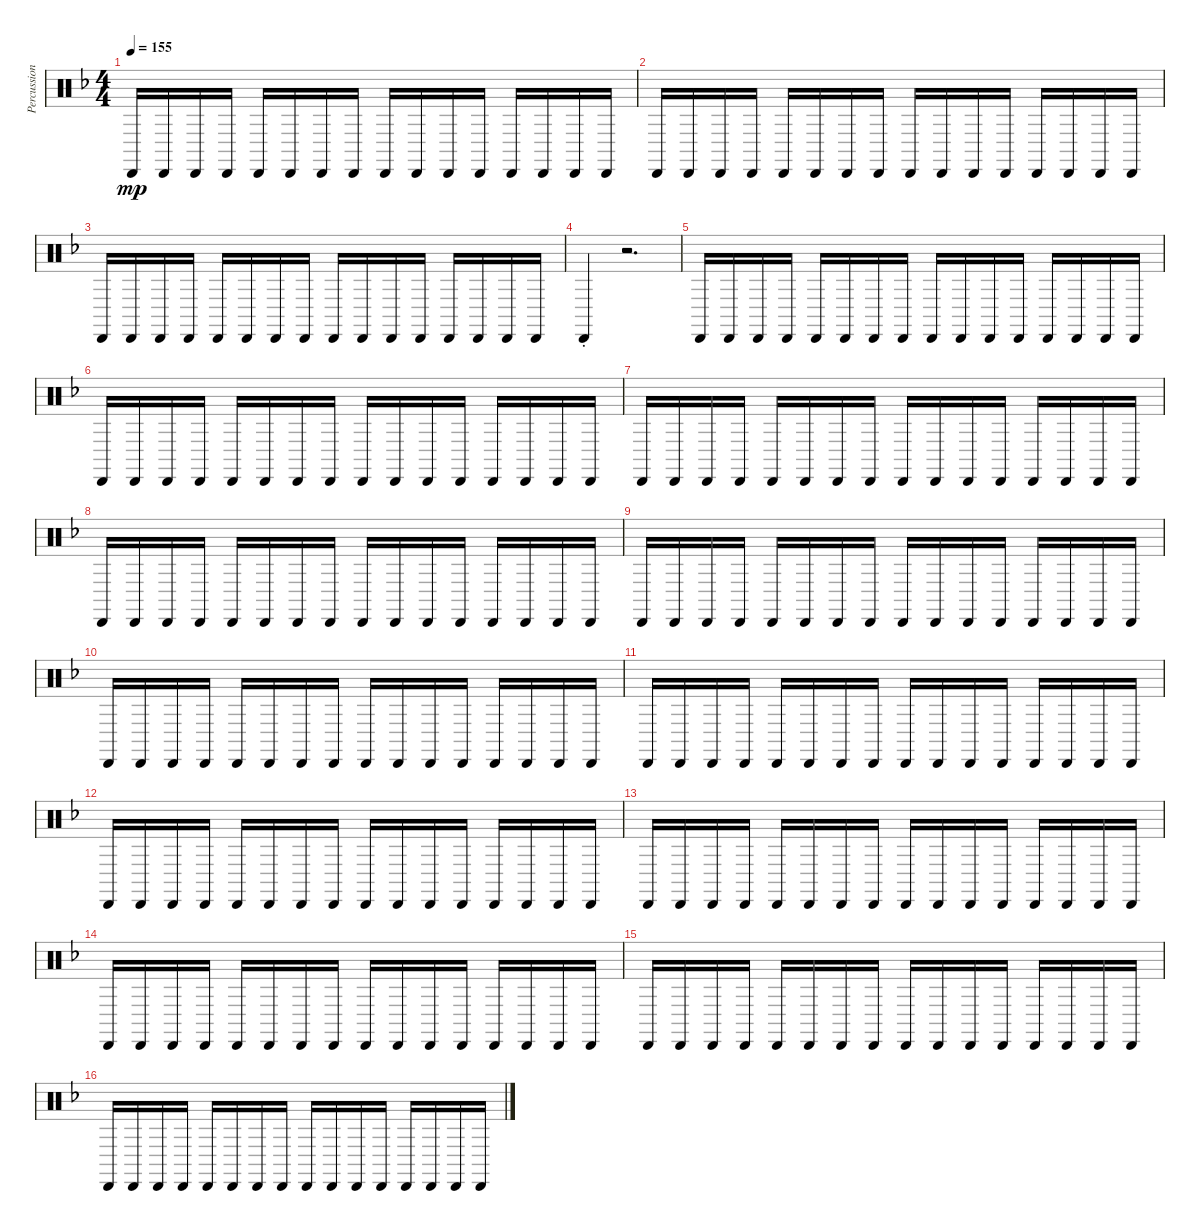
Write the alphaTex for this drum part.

\track ("Percussion" "Percussion") {instrument percussion}
\staff {score}
\articulation defaults
\ts (4 4)
\tempo 155
\clef neutral
\ks dminor "Cabasa (hit)".16{dy mp} "Cabasa (hit)".16 "Cabasa (hit)".16 "Cabasa (hit)".16 "Cabasa (hit)".16 "Cabasa (hit)".16 "Cabasa (hit)".16 "Cabasa (hit)".16 "Cabasa (hit)".16 "Cabasa (hit)".16 "Cabasa (hit)".16 "Cabasa (hit)".16 "Cabasa (hit)".16 "Cabasa (hit)".16 "Cabasa (hit)".16 "Cabasa (hit)".16
|
"Cabasa (hit)".16 "Cabasa (hit)".16 "Cabasa (hit)".16 "Cabasa (hit)".16 "Cabasa (hit)".16 "Cabasa (hit)".16 "Cabasa (hit)".16 "Cabasa (hit)".16 "Cabasa (hit)".16 "Cabasa (hit)".16 "Cabasa (hit)".16 "Cabasa (hit)".16 "Cabasa (hit)".16 "Cabasa (hit)".16 "Cabasa (hit)".16 "Cabasa (hit)".16 |
"Cabasa (hit)".16 "Cabasa (hit)".16 "Cabasa (hit)".16 "Cabasa (hit)".16 "Cabasa (hit)".16 "Cabasa (hit)".16 "Cabasa (hit)".16 "Cabasa (hit)".16 "Cabasa (hit)".16 "Cabasa (hit)".16 "Cabasa (hit)".16 "Cabasa (hit)".16 "Cabasa (hit)".16 "Cabasa (hit)".16 "Cabasa (hit)".16 "Cabasa (hit)".16 |
"Cabasa (hit)"{st}.4 r.2{d} |
"Cabasa (hit)".16 "Cabasa (hit)".16 "Cabasa (hit)".16 "Cabasa (hit)".16 "Cabasa (hit)".16 "Cabasa (hit)".16 "Cabasa (hit)".16 "Cabasa (hit)".16 "Cabasa (hit)".16 "Cabasa (hit)".16 "Cabasa (hit)".16 "Cabasa (hit)".16 "Cabasa (hit)".16 "Cabasa (hit)".16 "Cabasa (hit)".16 "Cabasa (hit)".16 |
"Cabasa (hit)".16 "Cabasa (hit)".16 "Cabasa (hit)".16 "Cabasa (hit)".16 "Cabasa (hit)".16 "Cabasa (hit)".16 "Cabasa (hit)".16 "Cabasa (hit)".16 "Cabasa (hit)".16 "Cabasa (hit)".16 "Cabasa (hit)".16 "Cabasa (hit)".16 "Cabasa (hit)".16 "Cabasa (hit)".16 "Cabasa (hit)".16 "Cabasa (hit)".16 |
"Cabasa (hit)".16 "Cabasa (hit)".16 "Cabasa (hit)".16 "Cabasa (hit)".16 "Cabasa (hit)".16 "Cabasa (hit)".16 "Cabasa (hit)".16 "Cabasa (hit)".16 "Cabasa (hit)".16 "Cabasa (hit)".16 "Cabasa (hit)".16 "Cabasa (hit)".16 "Cabasa (hit)".16 "Cabasa (hit)".16 "Cabasa (hit)".16 "Cabasa (hit)".16 |
"Cabasa (hit)".16 "Cabasa (hit)".16 "Cabasa (hit)".16 "Cabasa (hit)".16 "Cabasa (hit)".16 "Cabasa (hit)".16 "Cabasa (hit)".16 "Cabasa (hit)".16 "Cabasa (hit)".16 "Cabasa (hit)".16 "Cabasa (hit)".16 "Cabasa (hit)".16 "Cabasa (hit)".16 "Cabasa (hit)".16 "Cabasa (hit)".16 "Cabasa (hit)".16 |
"Cabasa (hit)".16 "Cabasa (hit)".16 "Cabasa (hit)".16 "Cabasa (hit)".16 "Cabasa (hit)".16 "Cabasa (hit)".16 "Cabasa (hit)".16 "Cabasa (hit)".16 "Cabasa (hit)".16 "Cabasa (hit)".16 "Cabasa (hit)".16 "Cabasa (hit)".16 "Cabasa (hit)".16 "Cabasa (hit)".16 "Cabasa (hit)".16 "Cabasa (hit)".16 |
"Cabasa (hit)".16 "Cabasa (hit)".16 "Cabasa (hit)".16 "Cabasa (hit)".16 "Cabasa (hit)".16 "Cabasa (hit)".16 "Cabasa (hit)".16 "Cabasa (hit)".16 "Cabasa (hit)".16 "Cabasa (hit)".16 "Cabasa (hit)".16 "Cabasa (hit)".16 "Cabasa (hit)".16 "Cabasa (hit)".16 "Cabasa (hit)".16 "Cabasa (hit)".16 |
"Cabasa (hit)".16 "Cabasa (hit)".16 "Cabasa (hit)".16 "Cabasa (hit)".16 "Cabasa (hit)".16 "Cabasa (hit)".16 "Cabasa (hit)".16 "Cabasa (hit)".16 "Cabasa (hit)".16 "Cabasa (hit)".16 "Cabasa (hit)".16 "Cabasa (hit)".16 "Cabasa (hit)".16 "Cabasa (hit)".16 "Cabasa (hit)".16 "Cabasa (hit)".16 |
"Cabasa (hit)".16 "Cabasa (hit)".16 "Cabasa (hit)".16 "Cabasa (hit)".16 "Cabasa (hit)".16 "Cabasa (hit)".16 "Cabasa (hit)".16 "Cabasa (hit)".16 "Cabasa (hit)".16 "Cabasa (hit)".16 "Cabasa (hit)".16 "Cabasa (hit)".16 "Cabasa (hit)".16 "Cabasa (hit)".16 "Cabasa (hit)".16 "Cabasa (hit)".16 |
"Cabasa (hit)".16 "Cabasa (hit)".16 "Cabasa (hit)".16 "Cabasa (hit)".16 "Cabasa (hit)".16 "Cabasa (hit)".16 "Cabasa (hit)".16 "Cabasa (hit)".16 "Cabasa (hit)".16 "Cabasa (hit)".16 "Cabasa (hit)".16 "Cabasa (hit)".16 "Cabasa (hit)".16 "Cabasa (hit)".16 "Cabasa (hit)".16 "Cabasa (hit)".16 |
"Cabasa (hit)".16 "Cabasa (hit)".16 "Cabasa (hit)".16 "Cabasa (hit)".16 "Cabasa (hit)".16 "Cabasa (hit)".16 "Cabasa (hit)".16 "Cabasa (hit)".16 "Cabasa (hit)".16 "Cabasa (hit)".16 "Cabasa (hit)".16 "Cabasa (hit)".16 "Cabasa (hit)".16 "Cabasa (hit)".16 "Cabasa (hit)".16 "Cabasa (hit)".16 |
"Cabasa (hit)".16 "Cabasa (hit)".16 "Cabasa (hit)".16 "Cabasa (hit)".16 "Cabasa (hit)".16 "Cabasa (hit)".16 "Cabasa (hit)".16 "Cabasa (hit)".16 "Cabasa (hit)".16 "Cabasa (hit)".16 "Cabasa (hit)".16 "Cabasa (hit)".16 "Cabasa (hit)".16 "Cabasa (hit)".16 "Cabasa (hit)".16 "Cabasa (hit)".16 |
"Cabasa (hit)".16 "Cabasa (hit)".16 "Cabasa (hit)".16 "Cabasa (hit)".16 "Cabasa (hit)".16 "Cabasa (hit)".16 "Cabasa (hit)".16 "Cabasa (hit)".16 "Cabasa (hit)".16 "Cabasa (hit)".16 "Cabasa (hit)".16 "Cabasa (hit)".16 "Cabasa (hit)".16 "Cabasa (hit)".16 "Cabasa (hit)".16 "Cabasa (hit)".16
